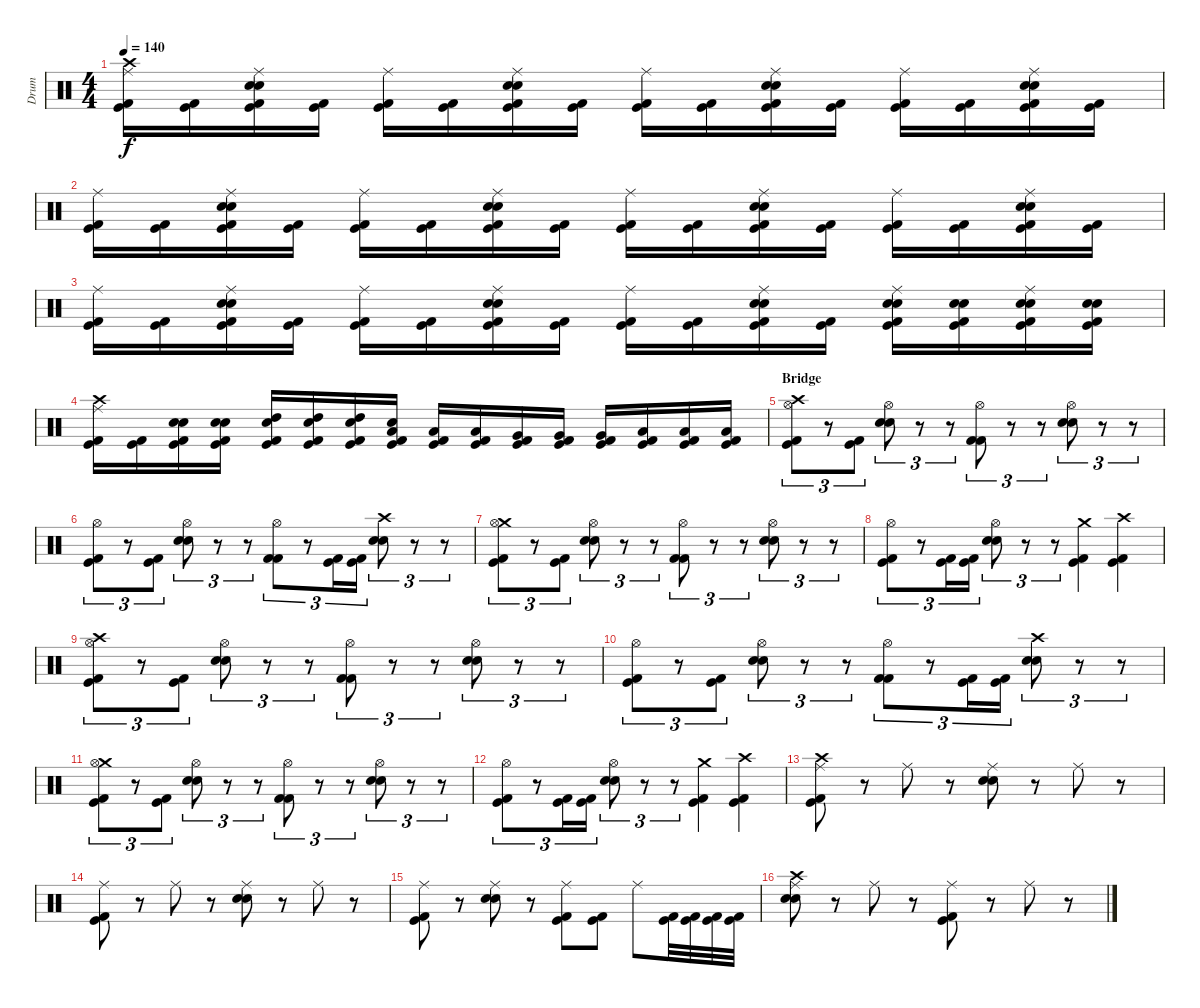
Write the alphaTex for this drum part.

\track ("Drum" "Drum") {instrument percussion}
\staff {score}
\articulation defaults
\ts (4 4)
\tempo 140
\clef neutral
\ks c
("Crash high (hit)" "Ride (middle)" "Kick (hit)" "Kick (hit) 2").16{dy f} ("Kick (hit)" "Kick (hit) 2").16 ("Ride (middle)" "Snare (hit) 2" "Electric Snare (hit)" "Kick (hit)" "Kick (hit) 2").16 ("Kick (hit)" "Kick (hit) 2").16 ("Ride (middle)" "Kick (hit)" "Kick (hit) 2").16 ("Kick (hit)" "Kick (hit) 2").16 ("Ride (middle)" "Snare (hit) 2" "Electric Snare (hit)" "Kick (hit)" "Kick (hit) 2").16 ("Kick (hit)" "Kick (hit) 2").16 ("Ride (middle)" "Kick (hit)" "Kick (hit) 2").16 ("Kick (hit)" "Kick (hit) 2").16 ("Ride (middle)" "Snare (hit) 2" "Electric Snare (hit)" "Kick (hit)" "Kick (hit) 2").16 ("Kick (hit)" "Kick (hit) 2").16 ("Ride (middle)" "Kick (hit)" "Kick (hit) 2").16 ("Kick (hit)" "Kick (hit) 2").16 ("Ride (middle)" "Snare (hit) 2" "Electric Snare (hit)" "Kick (hit)" "Kick (hit) 2").16 ("Kick (hit)" "Kick (hit) 2").16 |
("Ride (middle)" "Kick (hit)" "Kick (hit) 2").16 ("Kick (hit)" "Kick (hit) 2").16 ("Ride (middle)" "Snare (hit) 2" "Electric Snare (hit)" "Kick (hit)" "Kick (hit) 2").16 ("Kick (hit)" "Kick (hit) 2").16 ("Ride (middle)" "Kick (hit)" "Kick (hit) 2").16 ("Kick (hit)" "Kick (hit) 2").16 ("Ride (middle)" "Snare (hit) 2" "Electric Snare (hit)" "Kick (hit)" "Kick (hit) 2").16 ("Kick (hit)" "Kick (hit) 2").16 ("Ride (middle)" "Kick (hit)" "Kick (hit) 2").16 ("Kick (hit)" "Kick (hit) 2").16 ("Ride (middle)" "Snare (hit) 2" "Electric Snare (hit)" "Kick (hit)" "Kick (hit) 2").16 ("Kick (hit)" "Kick (hit) 2").16 ("Ride (middle)" "Kick (hit)" "Kick (hit) 2").16 ("Kick (hit)" "Kick (hit) 2").16 ("Ride (middle)" "Snare (hit) 2" "Electric Snare (hit)" "Kick (hit)" "Kick (hit) 2").16 ("Kick (hit)" "Kick (hit) 2").16 |
("Ride (middle)" "Kick (hit)" "Kick (hit) 2").16 ("Kick (hit)" "Kick (hit) 2").16 ("Ride (middle)" "Snare (hit) 2" "Electric Snare (hit)" "Kick (hit)" "Kick (hit) 2").16 ("Kick (hit)" "Kick (hit) 2").16 ("Ride (middle)" "Kick (hit)" "Kick (hit) 2").16 ("Kick (hit)" "Kick (hit) 2").16 ("Ride (middle)" "Snare (hit) 2" "Electric Snare (hit)" "Kick (hit)" "Kick (hit) 2").16 ("Kick (hit)" "Kick (hit) 2").16 ("Ride (middle)" "Kick (hit)" "Kick (hit) 2").16 ("Kick (hit)" "Kick (hit) 2").16 ("Ride (middle)" "Snare (hit) 2" "Electric Snare (hit)" "Kick (hit)" "Kick (hit) 2").16 ("Kick (hit)" "Kick (hit) 2").16 ("Ride (middle)" "Snare (hit) 2" "Electric Snare (hit)" "Kick (hit)" "Kick (hit) 2").16 ("Snare (hit) 2" "Electric Snare (hit)" "Kick (hit)" "Kick (hit) 2").16 ("Ride (middle)" "Snare (hit) 2" "Electric Snare (hit)" "Kick (hit)" "Kick (hit) 2").16 ("Snare (hit) 2" "Electric Snare (hit)" "Kick (hit)" "Kick (hit) 2").16 |
("Crash high (hit)" "Ride (middle)" "Kick (hit)" "Kick (hit) 2").16 ("Kick (hit)" "Kick (hit) 2").16 ("Snare (hit) 2" "Electric Snare (hit)" "Kick (hit)" "Kick (hit) 2").16 ("Snare (hit) 2" "Electric Snare (hit)" "Kick (hit)" "Kick (hit) 2").16 ("High Tom (hit)" "Electric Snare (hit)" "Kick (hit)" "Kick (hit) 2").16 ("High Tom (hit)" "Electric Snare (hit)" "Kick (hit)" "Kick (hit) 2").16 ("High Tom (hit)" "Electric Snare (hit)" "Kick (hit)" "Kick (hit) 2").16 ("Low Tom (hit)" "Electric Snare (hit)" "Kick (hit)" "Kick (hit) 2").16 ("Low Tom (hit)" "Kick (hit)" "Kick (hit) 2").16 ("Low Tom (hit)" "Kick (hit)" "Kick (hit) 2").16 ("Very Low Tom (hit)" "Kick (hit)" "Kick (hit) 2").16 ("Very Low Tom (hit)" "Kick (hit)" "Kick (hit) 2").16 ("Very Low Tom (hit)" "Kick (hit)" "Kick (hit) 2").16 ("Low Floor Tom (hit)" "Kick (hit)" "Kick (hit) 2").16 ("Low Floor Tom (hit)" "Kick (hit)" "Kick (hit) 2").16 ("Low Floor Tom (hit)" "Kick (hit)" "Kick (hit) 2").16 |
\section ("" "Bridge")
("Crash high (hit)" "Hi-Hat (open)" "Kick (hit)" "Kick (hit) 2").8{tu (3 2)} r.8{tu (3 2)} ("Kick (hit)" "Kick (hit) 2").8{tu (3 2)} ("Hi-Hat (open)" "Snare (hit) 2" "Electric Snare (hit)").8{tu (3 2)} r.8{tu (3 2)} r.8{tu (3 2)} ("Hi-Hat (open)" "Kick (hit) 2" "Kick (hit) 2").8{tu (3 2)} r.8{tu (3 2)} r.8{tu (3 2)} ("Hi-Hat (open)" "Snare (hit) 2" "Electric Snare (hit)").8{tu (3 2)} r.8{tu (3 2)} r.8{tu (3 2)} |
("Hi-Hat (open)" "Kick (hit)" "Kick (hit) 2").8{tu (3 2)} r.8{tu (3 2)} ("Kick (hit)" "Kick (hit) 2").8{tu (3 2)} ("Hi-Hat (open)" "Snare (hit) 2" "Electric Snare (hit)").8{tu (3 2)} r.8{tu (3 2)} r.8{tu (3 2)} ("Hi-Hat (open)" "Kick (hit) 2" "Kick (hit) 2").8{tu (3 2)} r.8{tu (3 2)} ("Kick (hit)" "Kick (hit) 2").16{tu (3 2)} ("Kick (hit)" "Kick (hit) 2").16{tu (3 2)} ("Crash high (hit)" "Snare (hit) 2" "Electric Snare (hit)").8{tu (3 2)} r.8{tu (3 2)} r.8{tu (3 2)} |
("Crash medium (hit)" "Hi-Hat (open)" "Kick (hit)" "Kick (hit) 2").8{tu (3 2)} r.8{tu (3 2)} ("Kick (hit)" "Kick (hit) 2").8{tu (3 2)} ("Hi-Hat (open)" "Snare (hit) 2" "Electric Snare (hit)").8{tu (3 2)} r.8{tu (3 2)} r.8{tu (3 2)} ("Hi-Hat (open)" "Kick (hit) 2" "Kick (hit) 2").8{tu (3 2)} r.8{tu (3 2)} r.8{tu (3 2)} ("Hi-Hat (open)" "Snare (hit) 2" "Electric Snare (hit)").8{tu (3 2)} r.8{tu (3 2)} r.8{tu (3 2)} |
("Hi-Hat (open)" "Kick (hit)" "Kick (hit) 2").8{tu (3 2)} r.8{tu (3 2)} ("Kick (hit)" "Kick (hit) 2").16{tu (3 2)} ("Kick (hit)" "Kick (hit) 2").16{tu (3 2)} ("Hi-Hat (open)" "Electric Snare (hit)" "Snare (hit) 2").8{tu (3 2)} r.8{tu (3 2)} r.8{tu (3 2)} ("Crash medium (hit)" "Kick (hit)" "Kick (hit) 2").4 ("Crash high (hit)" "Kick (hit)" "Kick (hit) 2").4 |
("Crash high (hit)" "Hi-Hat (open)" "Kick (hit)" "Kick (hit) 2").8{tu (3 2)} r.8{tu (3 2)} ("Kick (hit)" "Kick (hit) 2").8{tu (3 2)} ("Hi-Hat (open)" "Snare (hit) 2" "Electric Snare (hit)").8{tu (3 2)} r.8{tu (3 2)} r.8{tu (3 2)} ("Hi-Hat (open)" "Kick (hit) 2" "Kick (hit) 2").8{tu (3 2)} r.8{tu (3 2)} r.8{tu (3 2)} ("Hi-Hat (open)" "Snare (hit) 2" "Electric Snare (hit)").8{tu (3 2)} r.8{tu (3 2)} r.8{tu (3 2)} |
("Hi-Hat (open)" "Kick (hit)" "Kick (hit) 2").8{tu (3 2)} r.8{tu (3 2)} ("Kick (hit)" "Kick (hit) 2").8{tu (3 2)} ("Hi-Hat (open)" "Snare (hit) 2" "Electric Snare (hit)").8{tu (3 2)} r.8{tu (3 2)} r.8{tu (3 2)} ("Hi-Hat (open)" "Kick (hit) 2" "Kick (hit) 2").8{tu (3 2)} r.8{tu (3 2)} ("Kick (hit)" "Kick (hit) 2").16{tu (3 2)} ("Kick (hit)" "Kick (hit) 2").16{tu (3 2)} ("Crash high (hit)" "Snare (hit) 2" "Electric Snare (hit)").8{tu (3 2)} r.8{tu (3 2)} r.8{tu (3 2)} |
("Crash medium (hit)" "Hi-Hat (open)" "Kick (hit)" "Kick (hit) 2").8{tu (3 2)} r.8{tu (3 2)} ("Kick (hit)" "Kick (hit) 2").8{tu (3 2)} ("Hi-Hat (open)" "Snare (hit) 2" "Electric Snare (hit)").8{tu (3 2)} r.8{tu (3 2)} r.8{tu (3 2)} ("Hi-Hat (open)" "Kick (hit) 2" "Kick (hit) 2").8{tu (3 2)} r.8{tu (3 2)} r.8{tu (3 2)} ("Hi-Hat (open)" "Snare (hit) 2" "Electric Snare (hit)").8{tu (3 2)} r.8{tu (3 2)} r.8{tu (3 2)} |
("Hi-Hat (open)" "Kick (hit)" "Kick (hit) 2").8{tu (3 2)} r.8{tu (3 2)} ("Kick (hit)" "Kick (hit) 2").16{tu (3 2)} ("Kick (hit)" "Kick (hit) 2").16{tu (3 2)} ("Hi-Hat (open)" "Electric Snare (hit)" "Snare (hit) 2").8{tu (3 2)} r.8{tu (3 2)} r.8{tu (3 2)} ("Crash medium (hit)" "Kick (hit)" "Kick (hit) 2").4 ("Crash high (hit)" "Kick (hit)" "Kick (hit) 2").4 |
("Crash high (hit)" "Ride (middle)" "Kick (hit)" "Kick (hit) 2").8 r.8 "Ride (middle)".8 r.8 ("Ride (middle)" "Snare (hit) 2" "Electric Snare (hit)").8 r.8 "Ride (middle)".8 r.8 |
("Ride (middle)" "Kick (hit)" "Kick (hit) 2").8 r.8 "Ride (middle)".8 r.8 ("Ride (middle)" "Snare (hit) 2" "Electric Snare (hit)").8 r.8 "Ride (middle)".8 r.8 |
("Ride (middle)" "Kick (hit)" "Kick (hit) 2").8 r.8 ("Ride (middle)" "Snare (hit) 2" "Electric Snare (hit)").8 r.8 ("Ride (middle)" "Kick (hit)" "Kick (hit) 2").8 ("Kick (hit)" "Kick (hit) 2").8 "Ride (middle)".8 ("Kick (hit)" "Kick (hit) 2").32 ("Kick (hit)" "Kick (hit) 2").32 ("Kick (hit)" "Kick (hit) 2").32 ("Kick (hit)" "Kick (hit) 2").32 |
("Crash high (hit)" "Ride (middle)" "Snare (hit) 2" "Electric Snare (hit)").8 r.8 "Ride (middle)".8 r.8 ("Ride (middle)" "Kick (hit)" "Kick (hit) 2").8 r.8 "Ride (middle)".8 r.8
